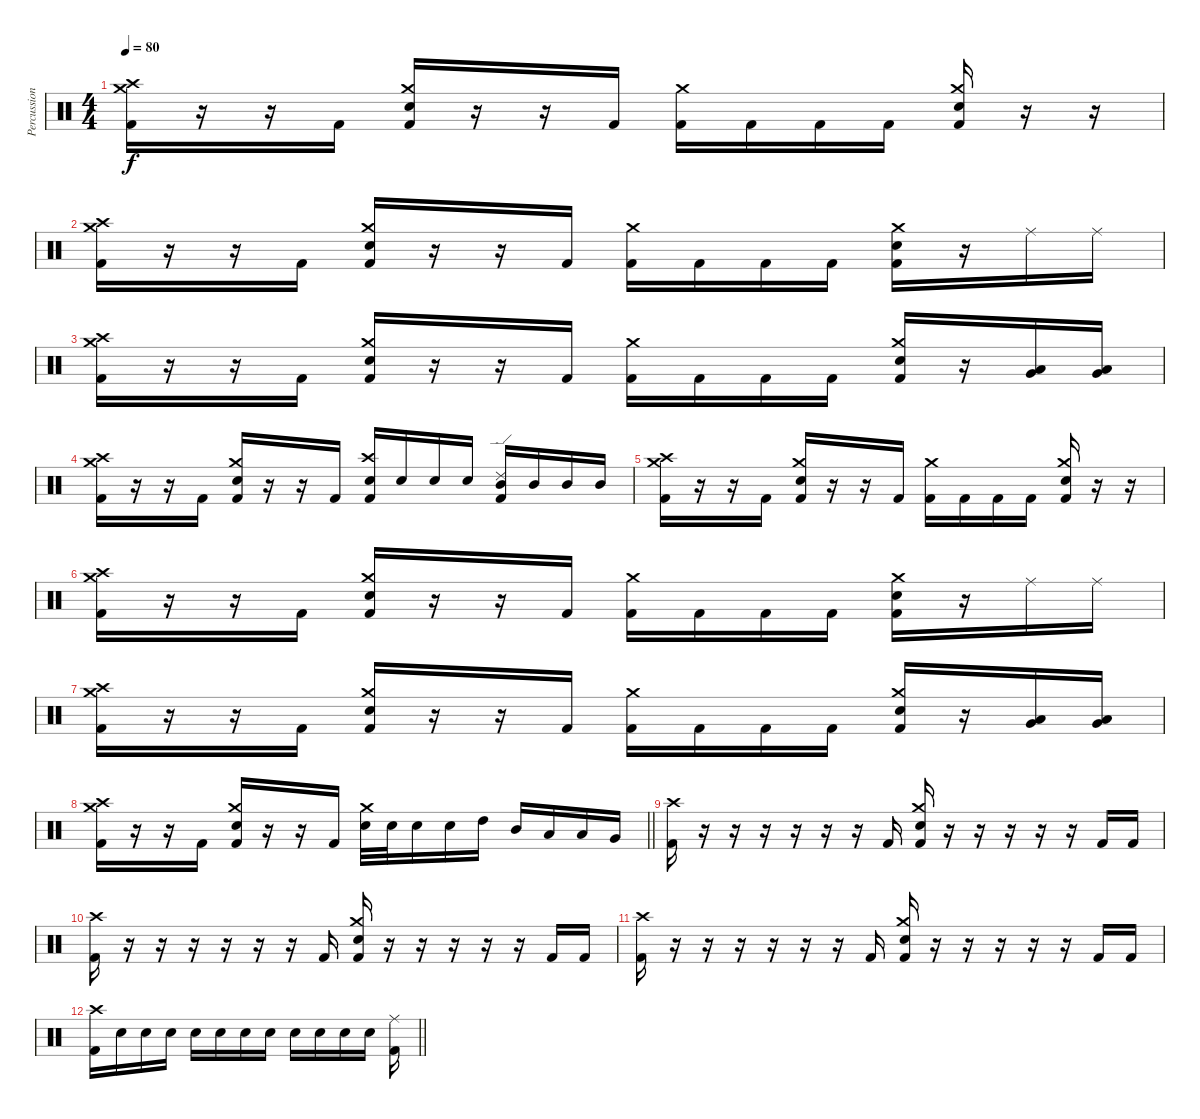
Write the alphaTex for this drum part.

\track ("Percussion" "Percussion") {instrument percussion}
\staff {score}
\articulation defaults
\ts (4 4)
\tempo 80
\clef neutral
\ks c
("Kick (hit) 2" "Crash high (hit)" "Crash medium (hit)").16{dy f} r.16 r.16 "Kick (hit) 2".16 ("Kick (hit) 2" "Snare (hit) 2" "Crash medium (hit)").16 r.16 r.16 "Kick (hit) 2".16 ("Kick (hit) 2" "Crash medium (hit)").16 "Kick (hit) 2".16 "Kick (hit) 2".16 "Kick (hit) 2".16 ("Kick (hit) 2" "Snare (hit) 2" "Crash medium (hit)").16 r.16 r.16 |
("Kick (hit) 2" "Crash high (hit)" "Crash medium (hit)").16 r.16 r.16 "Kick (hit) 2".16 ("Kick (hit) 2" "Snare (hit) 2" "Crash medium (hit)").16 r.16 r.16 "Kick (hit) 2".16 ("Kick (hit) 2" "Crash medium (hit)").16 "Kick (hit) 2".16 "Kick (hit) 2".16 "Kick (hit) 2".16 ("Kick (hit) 2" "Snare (hit) 2" "Crash medium (hit)").16 r.16 "Ride (middle)".16 "Ride (middle)".16 |
("Kick (hit) 2" "Crash high (hit)" "Crash medium (hit)").16 r.16 r.16 "Kick (hit) 2".16 ("Kick (hit) 2" "Snare (hit) 2" "Crash medium (hit)").16 r.16 r.16 "Kick (hit) 2".16 ("Kick (hit) 2" "Crash medium (hit)").16 "Kick (hit) 2".16 "Kick (hit) 2".16 "Kick (hit) 2".16 ("Kick (hit) 2" "Snare (hit) 2" "Crash medium (hit)").16 r.16 ("Low Floor Tom (hit)" "Very Low Tom (hit)").16 ("Low Floor Tom (hit)" "Very Low Tom (hit)").16 |
("Kick (hit) 2" "Crash high (hit)" "Crash medium (hit)").16 r.16 r.16 "Kick (hit) 2".16 ("Kick (hit) 2" "Snare (hit) 2" "Crash medium (hit)").16 r.16 r.16 "Kick (hit) 2".16 ("Kick (hit) 2" "Snare (hit) 2" "Crash high (hit)").16 "Snare (hit) 2".16 "Snare (hit) 2".16 "Snare (hit) 2".16 ("Kick (hit) 2" "Mid Tom (hit)" "Ride (edge) 2").16 "Mid Tom (hit)".16 "Mid Tom (hit)".16 "Mid Tom (hit)".16 |
("Kick (hit) 2" "Crash high (hit)" "Crash medium (hit)").16 r.16 r.16 "Kick (hit) 2".16 ("Kick (hit) 2" "Snare (hit) 2" "Crash medium (hit)").16 r.16 r.16 "Kick (hit) 2".16 ("Kick (hit) 2" "Crash medium (hit)").16 "Kick (hit) 2".16 "Kick (hit) 2".16 "Kick (hit) 2".16 ("Kick (hit) 2" "Snare (hit) 2" "Crash medium (hit)").16 r.16 r.16 |
("Kick (hit) 2" "Crash high (hit)" "Crash medium (hit)").16 r.16 r.16 "Kick (hit) 2".16 ("Kick (hit) 2" "Snare (hit) 2" "Crash medium (hit)").16 r.16 r.16 "Kick (hit) 2".16 ("Kick (hit) 2" "Crash medium (hit)").16 "Kick (hit) 2".16 "Kick (hit) 2".16 "Kick (hit) 2".16 ("Kick (hit) 2" "Snare (hit) 2" "Crash medium (hit)").16 r.16 "Ride (middle)".16 "Ride (middle)".16 |
("Kick (hit) 2" "Crash high (hit)" "Crash medium (hit)").16 r.16 r.16 "Kick (hit) 2".16 ("Kick (hit) 2" "Snare (hit) 2" "Crash medium (hit)").16 r.16 r.16 "Kick (hit) 2".16 ("Kick (hit) 2" "Crash medium (hit)").16 "Kick (hit) 2".16 "Kick (hit) 2".16 "Kick (hit) 2".16 ("Kick (hit) 2" "Snare (hit) 2" "Crash medium (hit)").16 r.16 ("Low Floor Tom (hit)" "Very Low Tom (hit)").16 ("Low Floor Tom (hit)" "Very Low Tom (hit)").16 |
\barLineRight lightlight
("Kick (hit) 2" "Crash high (hit)" "Crash medium (hit)").16 r.16 r.16 "Kick (hit) 2".16 ("Kick (hit) 2" "Snare (hit) 2" "Crash medium (hit)").16 r.16 r.16 "Kick (hit) 2".16 ("Snare (hit) 2" "Crash medium (hit)").32 "Snare (hit) 2".32 "Snare (hit) 2".16 "Snare (hit) 2".16 "High Tom (hit)".16 "Mid Tom (hit)".16 "Low Tom (hit)".16 "Low Tom (hit)".16 "Very Low Tom (hit)".16 |
("Kick (hit) 2" "Crash high (hit)").16 r.16 r.16 r.16 r.16 r.16 r.16 "Kick (hit) 2".16 ("Kick (hit) 2" "Snare (hit) 2" "Crash medium (hit)").16 r.16 r.16 r.16 r.16 r.16 "Kick (hit) 2".16 "Kick (hit) 2".16 |
("Kick (hit) 2" "Crash high (hit)").16 r.16 r.16 r.16 r.16 r.16 r.16 "Kick (hit) 2".16 ("Kick (hit) 2" "Snare (hit) 2" "Crash medium (hit)").16 r.16 r.16 r.16 r.16 r.16 "Kick (hit) 2".16 "Kick (hit) 2".16 |
("Kick (hit) 2" "Crash high (hit)").16 r.16 r.16 r.16 r.16 r.16 r.16 "Kick (hit) 2".16 ("Kick (hit) 2" "Snare (hit) 2" "Crash medium (hit)").16 r.16 r.16 r.16 r.16 r.16 "Kick (hit) 2".16 "Kick (hit) 2".16 |
\barLineRight lightlight
("Kick (hit) 2" "Crash high (hit)").16 "Snare (hit)".16 "Snare (hit)".16 "Snare (hit)".16 "Snare (hit)".16 "Snare (hit)".16 "Snare (hit)".16 "Snare (hit)".16 "Snare (hit)".16 "Snare (hit)".16 "Snare (hit)".16 "Snare (hit)".16 ("Kick (hit) 2" "Ride (middle)").16
